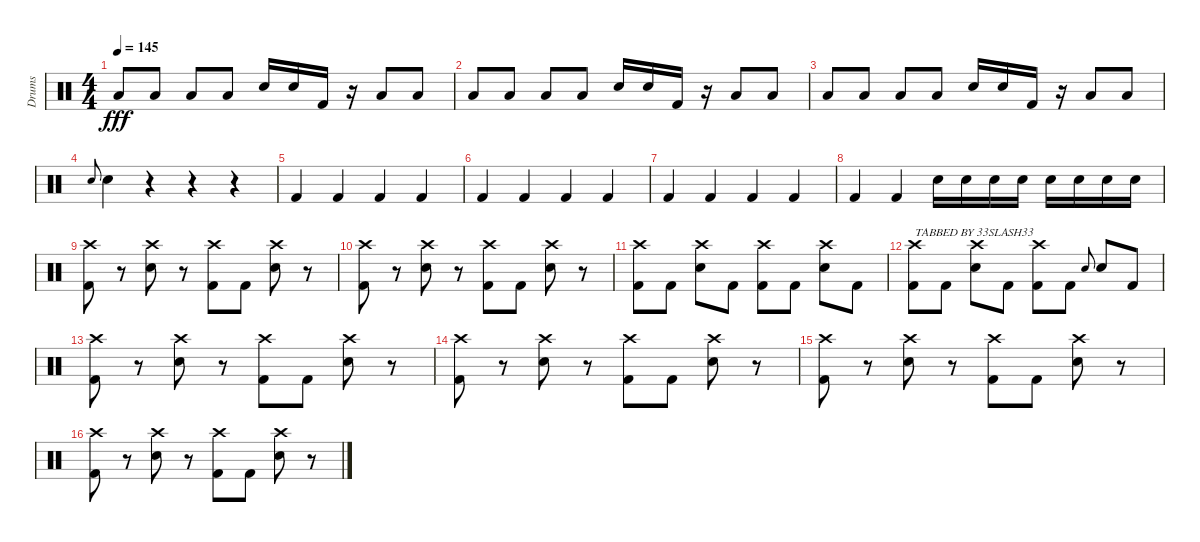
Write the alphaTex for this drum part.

\track ("Drums" "Drums") {instrument percussion}
\staff {score}
\articulation defaults
\ts (4 4)
\tempo 145
\clef neutral
\ks c "Low Tom (hit)".8{dy fff} "Low Floor Tom (hit)".8 "Low Tom (hit)".8 "Low Floor Tom (hit)".8 "Snare (hit) 2".16 "Snare (hit) 2".16 "Kick (hit) 2".16
r.16 "Low Tom (hit)".8 "Low Floor Tom (hit)".8 |
"Low Tom (hit)".8 "Low Floor Tom (hit)".8 "Low Tom (hit)".8 "Low Floor Tom (hit)".8 "Snare (hit) 2".16 "Snare (hit) 2".16 "Kick (hit) 2".16 r.16 "Low Tom (hit)".8 "Low Floor Tom (hit)".8 |
"Low Tom (hit)".8 "Low Floor Tom (hit)".8 "Low Tom (hit)".8 "Low Floor Tom (hit)".8 "Snare (hit) 2".16 "Snare (hit) 2".16 "Kick (hit) 2".16 r.16 "Low Tom (hit)".8 "Low Floor Tom (hit)".8 |
"Snare (hit) 2".8{gr onbeat} "Snare (hit) 2".4 r.4 r.4 r.4 |
"Kick (hit) 2".4 "Kick (hit) 2".4 "Kick (hit) 2".4 "Kick (hit) 2".4 |
"Kick (hit) 2".4 "Kick (hit) 2".4 "Kick (hit) 2".4 "Kick (hit) 2".4 |
"Kick (hit) 2".4 "Kick (hit) 2".4 "Kick (hit) 2".4 "Kick (hit) 2".4 |
"Kick (hit) 2".4 "Kick (hit) 2".4 "Snare (hit) 2".16 "Snare (hit) 2".16 "Snare (hit) 2".16 "Snare (hit) 2".16 "Snare (hit) 2".16 "Snare (hit) 2".16 "Snare (hit) 2".16 "Snare (hit) 2".16 |
("Crash high (hit)" "Kick (hit) 2").8 r.8 ("Crash high (hit)" "Snare (hit) 2").8 r.8 ("Crash high (hit)" "Kick (hit) 2").8 "Kick (hit) 2".8 ("Crash high (hit)" "Snare (hit) 2").8 r.8 |
("Crash high (hit)" "Kick (hit) 2").8 r.8 ("Crash high (hit)" "Snare (hit) 2").8 r.8 ("Crash high (hit)" "Kick (hit) 2").8 "Kick (hit) 2".8 ("Crash high (hit)" "Snare (hit) 2").8 r.8 |
("Crash high (hit)" "Kick (hit) 2").8 "Kick (hit) 2".8 ("Crash high (hit)" "Snare (hit) 2").8 "Kick (hit) 2".8 ("Crash high (hit)" "Kick (hit) 2").8 "Kick (hit) 2".8 ("Crash high (hit)" "Snare (hit) 2").8 "Kick (hit) 2".8 |
("Crash high (hit)" "Kick (hit) 2").8{txt "TABBED BY 33SLASH33"} "Kick (hit) 2".8 ("Crash high (hit)" "Snare (hit) 2").8 "Kick (hit) 2".8 ("Crash high (hit)" "Kick (hit) 2").8 "Kick (hit) 2".8 "Snare (hit) 2".8{gr onbeat} "Snare (hit) 2".8 "Kick (hit) 2".8 |
("Crash high (hit)" "Kick (hit) 2").8 r.8 ("Crash high (hit)" "Snare (hit) 2").8 r.8 ("Crash high (hit)" "Kick (hit) 2").8 "Kick (hit) 2".8 ("Crash high (hit)" "Snare (hit) 2").8 r.8 |
("Crash high (hit)" "Kick (hit) 2").8 r.8 ("Crash high (hit)" "Snare (hit) 2").8 r.8 ("Crash high (hit)" "Kick (hit) 2").8 "Kick (hit) 2".8 ("Crash high (hit)" "Snare (hit) 2").8 r.8 |
("Crash high (hit)" "Kick (hit) 2").8 r.8 ("Crash high (hit)" "Snare (hit) 2").8 r.8 ("Crash high (hit)" "Kick (hit) 2").8 "Kick (hit) 2".8 ("Crash high (hit)" "Snare (hit) 2").8 r.8 |
("Crash high (hit)" "Kick (hit) 2").8 r.8 ("Crash high (hit)" "Snare (hit) 2").8 r.8 ("Crash high (hit)" "Kick (hit) 2").8 "Kick (hit) 2".8 ("Crash high (hit)" "Snare (hit) 2").8 r.8
